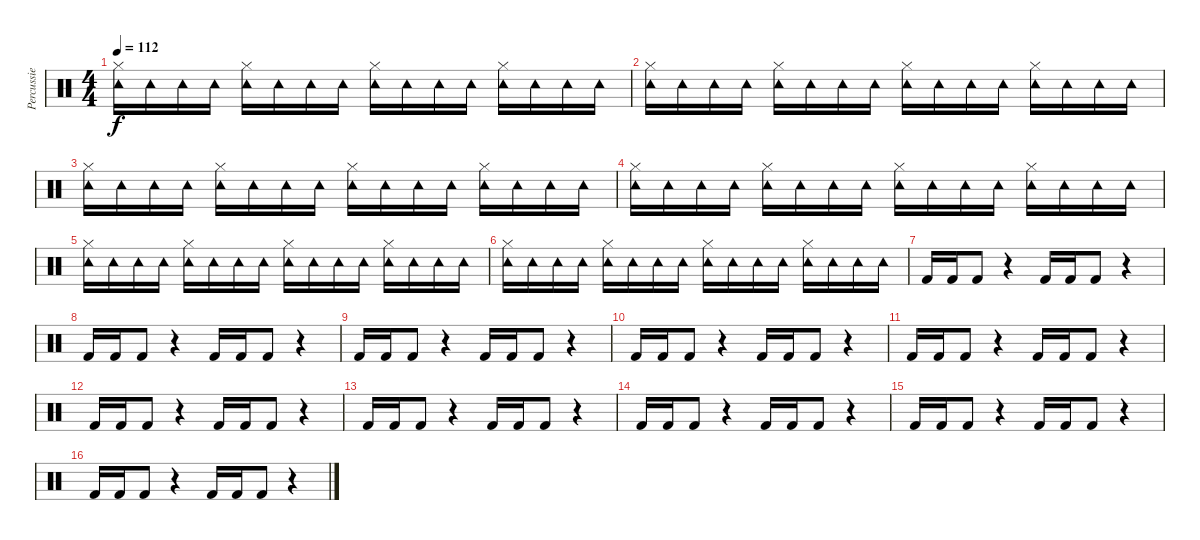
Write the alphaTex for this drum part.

\track ("Percussie" "Percussie") {instrument percussion}
\staff {score}
\articulation defaults
\ts (4 4)
\tempo 112
\clef neutral
\ks c
("Hi-Hat (closed)" "Tambourine (hit)").16{dy f} "Tambourine (hit)".16 "Tambourine (hit)".16 "Tambourine (hit)".16 ("Hi-Hat (closed)" "Tambourine (hit)").16 "Tambourine (hit)".16 "Tambourine (hit)".16 "Tambourine (hit)".16 ("Hi-Hat (closed)" "Tambourine (hit)").16 "Tambourine (hit)".16 "Tambourine (hit)".16 "Tambourine (hit)".16 ("Hi-Hat (closed)" "Tambourine (hit)").16 "Tambourine (hit)".16 "Tambourine (hit)".16 "Tambourine (hit)".16 |
("Hi-Hat (closed)" "Tambourine (hit)").16 "Tambourine (hit)".16 "Tambourine (hit)".16 "Tambourine (hit)".16 ("Hi-Hat (closed)" "Tambourine (hit)").16 "Tambourine (hit)".16 "Tambourine (hit)".16 "Tambourine (hit)".16 ("Hi-Hat (closed)" "Tambourine (hit)").16 "Tambourine (hit)".16 "Tambourine (hit)".16 "Tambourine (hit)".16 ("Hi-Hat (closed)" "Tambourine (hit)").16 "Tambourine (hit)".16 "Tambourine (hit)".16 "Tambourine (hit)".16 |
("Hi-Hat (closed)" "Tambourine (hit)").16 "Tambourine (hit)".16 "Tambourine (hit)".16 "Tambourine (hit)".16 ("Hi-Hat (closed)" "Tambourine (hit)").16 "Tambourine (hit)".16 "Tambourine (hit)".16 "Tambourine (hit)".16 ("Hi-Hat (closed)" "Tambourine (hit)").16 "Tambourine (hit)".16 "Tambourine (hit)".16 "Tambourine (hit)".16 ("Hi-Hat (closed)" "Tambourine (hit)").16 "Tambourine (hit)".16 "Tambourine (hit)".16 "Tambourine (hit)".16 |
("Hi-Hat (closed)" "Tambourine (hit)").16 "Tambourine (hit)".16 "Tambourine (hit)".16 "Tambourine (hit)".16 ("Hi-Hat (closed)" "Tambourine (hit)").16 "Tambourine (hit)".16 "Tambourine (hit)".16 "Tambourine (hit)".16 ("Hi-Hat (closed)" "Tambourine (hit)").16 "Tambourine (hit)".16 "Tambourine (hit)".16 "Tambourine (hit)".16 ("Hi-Hat (closed)" "Tambourine (hit)").16 "Tambourine (hit)".16 "Tambourine (hit)".16 "Tambourine (hit)".16 |
("Hi-Hat (closed)" "Tambourine (hit)").16 "Tambourine (hit)".16 "Tambourine (hit)".16 "Tambourine (hit)".16 ("Hi-Hat (closed)" "Tambourine (hit)").16 "Tambourine (hit)".16 "Tambourine (hit)".16 "Tambourine (hit)".16 ("Hi-Hat (closed)" "Tambourine (hit)").16 "Tambourine (hit)".16 "Tambourine (hit)".16 "Tambourine (hit)".16 ("Hi-Hat (closed)" "Tambourine (hit)").16 "Tambourine (hit)".16 "Tambourine (hit)".16 "Tambourine (hit)".16 |
("Hi-Hat (closed)" "Tambourine (hit)").16 "Tambourine (hit)".16 "Tambourine (hit)".16 "Tambourine (hit)".16 ("Hi-Hat (closed)" "Tambourine (hit)").16 "Tambourine (hit)".16 "Tambourine (hit)".16 "Tambourine (hit)".16 ("Hi-Hat (closed)" "Tambourine (hit)").16 "Tambourine (hit)".16 "Tambourine (hit)".16 "Tambourine (hit)".16 ("Hi-Hat (closed)" "Tambourine (hit)").16 "Tambourine (hit)".16 "Tambourine (hit)".16 "Tambourine (hit)".16 |
"Kick (hit) 2".16 "Kick (hit) 2".16 "Kick (hit) 2".8 r.4 "Kick (hit) 2".16 "Kick (hit) 2".16 "Kick (hit) 2".8 r.4 |
"Kick (hit) 2".16 "Kick (hit) 2".16 "Kick (hit) 2".8 r.4 "Kick (hit) 2".16 "Kick (hit) 2".16 "Kick (hit) 2".8 r.4 |
"Kick (hit) 2".16 "Kick (hit) 2".16 "Kick (hit) 2".8 r.4 "Kick (hit) 2".16 "Kick (hit) 2".16 "Kick (hit) 2".8 r.4 |
"Kick (hit) 2".16 "Kick (hit) 2".16 "Kick (hit) 2".8 r.4 "Kick (hit) 2".16 "Kick (hit) 2".16 "Kick (hit) 2".8 r.4 |
"Kick (hit) 2".16 "Kick (hit) 2".16 "Kick (hit) 2".8 r.4 "Kick (hit) 2".16 "Kick (hit) 2".16 "Kick (hit) 2".8 r.4 |
"Kick (hit) 2".16 "Kick (hit) 2".16 "Kick (hit) 2".8 r.4 "Kick (hit) 2".16 "Kick (hit) 2".16 "Kick (hit) 2".8 r.4 |
"Kick (hit) 2".16 "Kick (hit) 2".16 "Kick (hit) 2".8 r.4 "Kick (hit) 2".16 "Kick (hit) 2".16 "Kick (hit) 2".8 r.4 |
"Kick (hit) 2".16 "Kick (hit) 2".16 "Kick (hit) 2".8 r.4 "Kick (hit) 2".16 "Kick (hit) 2".16 "Kick (hit) 2".8 r.4 |
"Kick (hit) 2".16 "Kick (hit) 2".16 "Kick (hit) 2".8 r.4 "Kick (hit) 2".16 "Kick (hit) 2".16 "Kick (hit) 2".8 r.4 |
"Kick (hit) 2".16 "Kick (hit) 2".16 "Kick (hit) 2".8 r.4 "Kick (hit) 2".16 "Kick (hit) 2".16 "Kick (hit) 2".8 r.4
